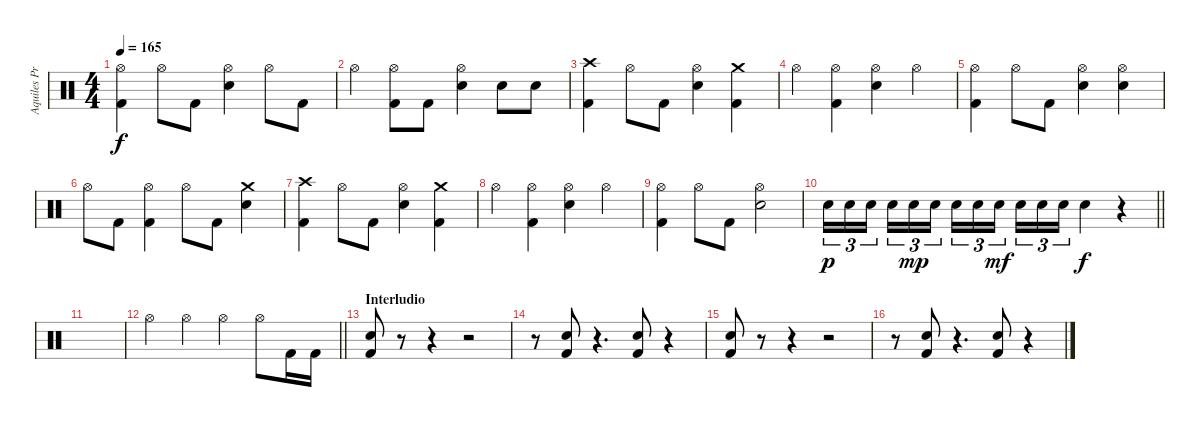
\track ("Aquiles Priester" "Aquiles Pr") {instrument percussion}
\staff {score}
\articulation defaults
\ts (4 4)
\tempo 165
\clef neutral
\ks c
("Hi-Hat (open)" "Kick (hit) 2").4{dy f} "Hi-Hat (open)".8 "Kick (hit) 2".8 ("Hi-Hat (open)" "Electric Snare (hit)").4 "Hi-Hat (open)".8 "Kick (hit) 2".8 |
"Hi-Hat (open)".4 ("Hi-Hat (open)" "Kick (hit) 2").8 "Kick (hit) 2".8 ("Hi-Hat (open)" "Electric Snare (hit)").4 "Electric Snare (hit)".8 "Electric Snare (hit)".8 |
("Crash high (hit)" "Kick (hit) 2").4 "Hi-Hat (open)".8 "Kick (hit) 2".8 ("Hi-Hat (open)" "Electric Snare (hit)").4 ("Crash medium (hit)" "Kick (hit) 2").4 |
"Hi-Hat (open)".4 ("Hi-Hat (open)" "Kick (hit) 2").4 ("Hi-Hat (open)" "Electric Snare (hit)").4 "Hi-Hat (open)".4 |
("Hi-Hat (open)" "Kick (hit) 2").4 "Hi-Hat (open)".8 "Kick (hit) 2".8 ("Hi-Hat (open)" "Electric Snare (hit)").4 ("Hi-Hat (open)" "Electric Snare (hit)").4 |
"Hi-Hat (open)".8 "Kick (hit) 2".8 ("Hi-Hat (open)" "Kick (hit) 2").4 "Hi-Hat (open)".8 "Kick (hit) 2".8 ("Crash medium (hit)" "Electric Snare (hit)").4 |
("Crash high (hit)" "Kick (hit) 2").4 "Hi-Hat (open)".8 "Kick (hit) 2".8 ("Hi-Hat (open)" "Electric Snare (hit)").4 ("Crash medium (hit)" "Kick (hit) 2").4 |
"Hi-Hat (open)".4 ("Hi-Hat (open)" "Kick (hit) 2").4 ("Hi-Hat (open)" "Electric Snare (hit)").4 "Hi-Hat (open)".4 |
("Hi-Hat (open)" "Kick (hit) 2").4 "Hi-Hat (open)".8 "Kick (hit) 2".8 ("Hi-Hat (open)" "Electric Snare (hit)").2 |
\barLineRight lightlight "Electric Snare (hit)".16{tu (3 2) dy p} "Electric Snare (hit)".16{tu (3 2)} "Electric Snare (hit)".16{tu (3 2) beam splitsecondary} "Electric Snare (hit)".16{tu (3 2)} "Electric Snare (hit)".16{tu (3 2) dy mp} "Electric Snare (hit)".16{tu (3 2)} "Electric Snare (hit)".16{tu (3 2)} "Electric Snare (hit)".16{tu (3 2)} "Electric Snare (hit)".16{tu (3 2) dy mf beam splitsecondary} "Electric Snare (hit)".16{tu (3 2)} "Electric Snare (hit)".16{tu (3 2)} "Electric Snare (hit)".16{tu (3 2)} "Electric Snare (hit)".4{dy f}
r.4 |
|
\barLineRight lightlight "Hi-Hat (open)".4 "Hi-Hat (open)".4 "Hi-Hat (open)".4 "Hi-Hat (open)".8 "Kick (hit) 2".16 "Kick (hit) 2".16
|
\section ("" "Interludio")
("Electric Snare (hit)" "Kick (hit) 2").8 r.8 r.4 r.2 |
r.8 ("Electric Snare (hit)" "Kick (hit) 2").8 r.4{d} ("Electric Snare (hit)" "Kick (hit) 2").8 r.4 |
("Electric Snare (hit)" "Kick (hit) 2").8 r.8 r.4 r.2 |
r.8 ("Electric Snare (hit)" "Kick (hit) 2").8 r.4{d} ("Electric Snare (hit)" "Kick (hit) 2").8 r.4
